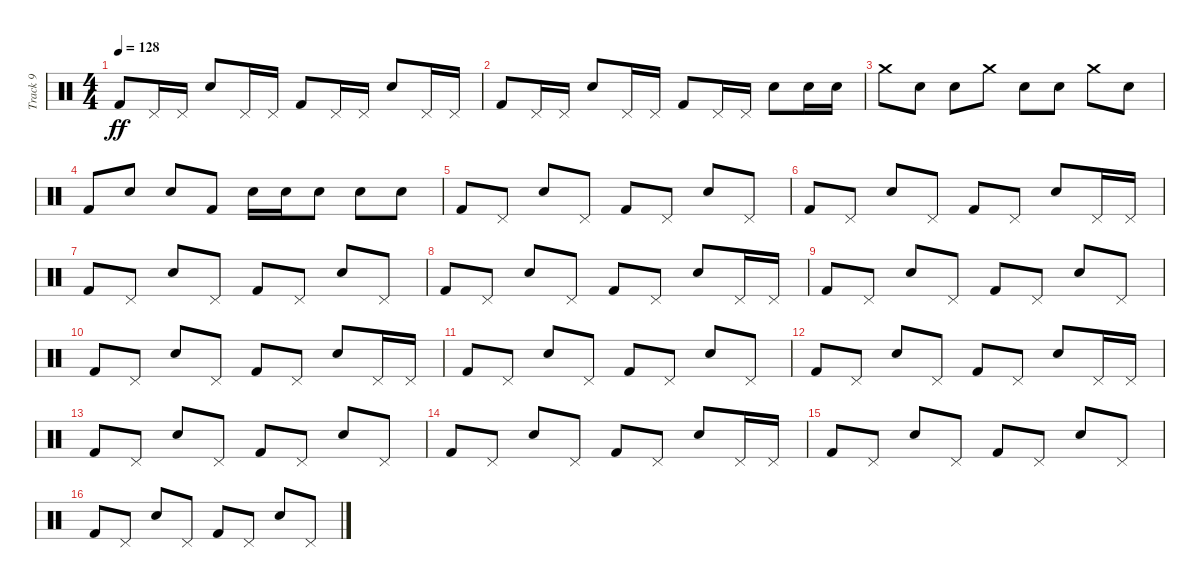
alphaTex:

\track ("Track 9" "Track 9") {instrument percussion}
\staff {score}
\articulation defaults
\ts (4 4)
\tempo 128
\clef neutral
\ks c "Kick (hit) 2".8{dy ff} "Pedal Hi-Hat (hit)".16 "Pedal Hi-Hat (hit)".16 "Snare (hit) 2".8 "Pedal Hi-Hat (hit)".16 "Pedal Hi-Hat (hit)".16 "Kick (hit) 2".8 "Pedal Hi-Hat (hit)".16 "Pedal Hi-Hat (hit)".16 "Snare (hit) 2".8 "Pedal Hi-Hat (hit)".16 "Pedal Hi-Hat (hit)".16
|
"Kick (hit) 2".8 "Pedal Hi-Hat (hit)".16 "Pedal Hi-Hat (hit)".16 "Snare (hit) 2".8 "Pedal Hi-Hat (hit)".16 "Pedal Hi-Hat (hit)".16 "Kick (hit) 2".8 "Pedal Hi-Hat (hit)".16 "Pedal Hi-Hat (hit)".16 "Snare (hit) 2".8 "Snare (hit) 2".16 "Snare (hit) 2".16 |
"Crash medium (hit)".8 "Snare (hit) 2".8 "Snare (hit) 2".8 "Crash medium (hit)".8 "Snare (hit) 2".8 "Snare (hit) 2".8 "Crash medium (hit)".8 "Snare (hit) 2".8 |
"Kick (hit) 2".8 "Snare (hit) 2".8 "Snare (hit) 2".8 "Kick (hit) 2".8 "Snare (hit) 2".16 "Snare (hit) 2".16 "Snare (hit) 2".8 "Snare (hit) 2".8 "Snare (hit) 2".8 |
"Kick (hit) 2".8 "Pedal Hi-Hat (hit)".8 "Snare (hit) 2".8 "Pedal Hi-Hat (hit)".8 "Kick (hit) 2".8 "Pedal Hi-Hat (hit)".8 "Snare (hit) 2".8 "Pedal Hi-Hat (hit)".8 |
"Kick (hit) 2".8 "Pedal Hi-Hat (hit)".8 "Snare (hit) 2".8 "Pedal Hi-Hat (hit)".8 "Kick (hit) 2".8 "Pedal Hi-Hat (hit)".8 "Snare (hit) 2".8 "Pedal Hi-Hat (hit)".16 "Pedal Hi-Hat (hit)".16 |
"Kick (hit) 2".8 "Pedal Hi-Hat (hit)".8 "Snare (hit) 2".8 "Pedal Hi-Hat (hit)".8 "Kick (hit) 2".8 "Pedal Hi-Hat (hit)".8 "Snare (hit) 2".8 "Pedal Hi-Hat (hit)".8 |
"Kick (hit) 2".8 "Pedal Hi-Hat (hit)".8 "Snare (hit) 2".8 "Pedal Hi-Hat (hit)".8 "Kick (hit) 2".8 "Pedal Hi-Hat (hit)".8 "Snare (hit) 2".8 "Pedal Hi-Hat (hit)".16 "Pedal Hi-Hat (hit)".16 |
"Kick (hit) 2".8 "Pedal Hi-Hat (hit)".8 "Snare (hit) 2".8 "Pedal Hi-Hat (hit)".8 "Kick (hit) 2".8 "Pedal Hi-Hat (hit)".8 "Snare (hit) 2".8 "Pedal Hi-Hat (hit)".8 |
"Kick (hit) 2".8 "Pedal Hi-Hat (hit)".8 "Snare (hit) 2".8 "Pedal Hi-Hat (hit)".8 "Kick (hit) 2".8 "Pedal Hi-Hat (hit)".8 "Snare (hit) 2".8 "Pedal Hi-Hat (hit)".16 "Pedal Hi-Hat (hit)".16 |
"Kick (hit) 2".8 "Pedal Hi-Hat (hit)".8 "Snare (hit) 2".8 "Pedal Hi-Hat (hit)".8 "Kick (hit) 2".8 "Pedal Hi-Hat (hit)".8 "Snare (hit) 2".8 "Pedal Hi-Hat (hit)".8 |
"Kick (hit) 2".8 "Pedal Hi-Hat (hit)".8 "Snare (hit) 2".8 "Pedal Hi-Hat (hit)".8 "Kick (hit) 2".8 "Pedal Hi-Hat (hit)".8 "Snare (hit) 2".8 "Pedal Hi-Hat (hit)".16 "Pedal Hi-Hat (hit)".16 |
"Kick (hit) 2".8 "Pedal Hi-Hat (hit)".8 "Snare (hit) 2".8 "Pedal Hi-Hat (hit)".8 "Kick (hit) 2".8 "Pedal Hi-Hat (hit)".8 "Snare (hit) 2".8 "Pedal Hi-Hat (hit)".8 |
"Kick (hit) 2".8 "Pedal Hi-Hat (hit)".8 "Snare (hit) 2".8 "Pedal Hi-Hat (hit)".8 "Kick (hit) 2".8 "Pedal Hi-Hat (hit)".8 "Snare (hit) 2".8 "Pedal Hi-Hat (hit)".16 "Pedal Hi-Hat (hit)".16 |
"Kick (hit) 2".8 "Pedal Hi-Hat (hit)".8 "Snare (hit) 2".8 "Pedal Hi-Hat (hit)".8 "Kick (hit) 2".8 "Pedal Hi-Hat (hit)".8 "Snare (hit) 2".8 "Pedal Hi-Hat (hit)".8 |
"Kick (hit) 2".8 "Pedal Hi-Hat (hit)".8 "Snare (hit) 2".8 "Pedal Hi-Hat (hit)".8 "Kick (hit) 2".8 "Pedal Hi-Hat (hit)".8 "Snare (hit) 2".8 "Pedal Hi-Hat (hit)".8
